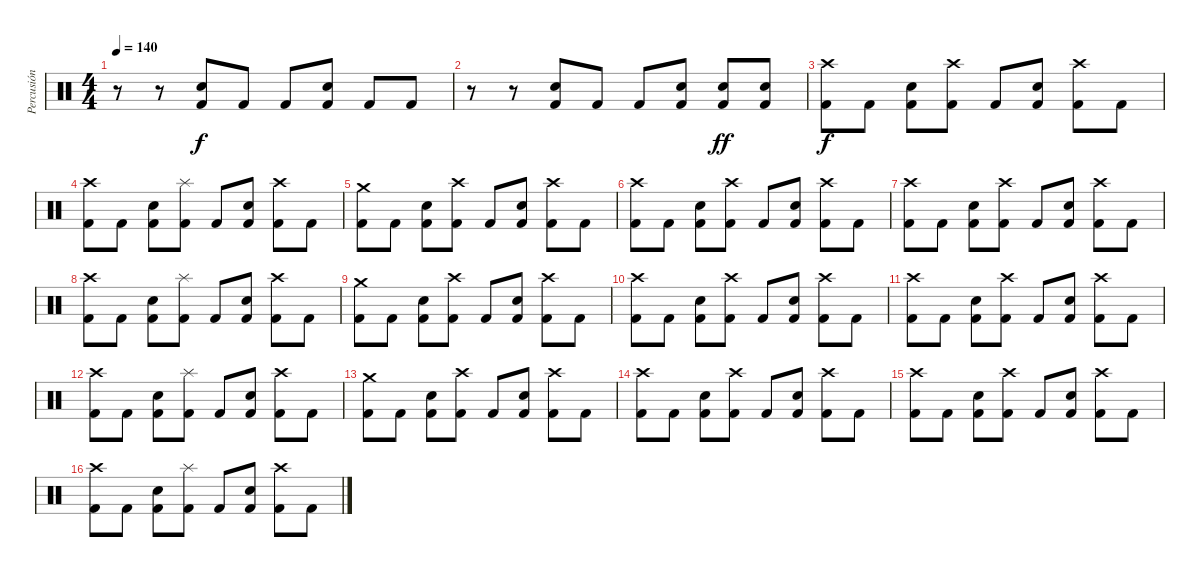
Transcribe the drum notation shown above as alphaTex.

\track ("Percusión" "Percusión") {instrument percussion}
\staff {score}
\articulation defaults
\ts (4 4)
\tempo 140
\clef neutral
\ks c
r.8{dy ff} r.8 ("Kick (hit) 2" "Snare (hit) 2").8{dy f} "Kick (hit) 2".8 "Kick (hit) 2".8 ("Kick (hit) 2" "Snare (hit) 2").8 "Kick (hit) 2".8 "Kick (hit) 2".8 |
r.8 r.8 ("Kick (hit) 2" "Snare (hit) 2").8 "Kick (hit) 2".8 "Kick (hit) 2".8 ("Kick (hit) 2" "Snare (hit) 2").8 ("Kick (hit) 2" "Snare (hit) 2").8{dy ff} ("Kick (hit) 2" "Snare (hit) 2").8 |
("Crash high (hit)" "Kick (hit) 2").8{dy f} "Kick (hit) 2".8 ("Kick (hit) 2" "Snare (hit) 2").8 ("Crash high (hit)" "Kick (hit) 2").8 "Kick (hit) 2".8 ("Kick (hit) 2" "Snare (hit) 2").8 ("Crash high (hit)" "Kick (hit) 2").8 "Kick (hit) 2".8 |
("Crash high (hit)" "Kick (hit) 2").8 "Kick (hit) 2".8 ("Kick (hit) 2" "Snare (hit) 2").8 ("Splash (hit)" "Kick (hit) 2").8 "Kick (hit) 2".8 ("Kick (hit) 2" "Snare (hit) 2").8 ("Crash high (hit)" "Kick (hit) 2").8 "Kick (hit) 2".8 |
("Crash medium (hit)" "Kick (hit) 2").8 "Kick (hit) 2".8 ("Kick (hit) 2" "Snare (hit) 2").8 ("Crash high (hit)" "Kick (hit) 2").8 "Kick (hit) 2".8 ("Kick (hit) 2" "Snare (hit) 2").8 ("Crash high (hit)" "Kick (hit) 2").8 "Kick (hit) 2".8 |
("Crash high (hit)" "Kick (hit) 2").8 "Kick (hit) 2".8 ("Kick (hit) 2" "Snare (hit) 2").8 ("Crash high (hit)" "Kick (hit) 2").8 "Kick (hit) 2".8 ("Kick (hit) 2" "Snare (hit) 2").8 ("Crash high (hit)" "Kick (hit) 2").8 "Kick (hit) 2".8 |
("Crash high (hit)" "Kick (hit) 2").8 "Kick (hit) 2".8 ("Kick (hit) 2" "Snare (hit) 2").8 ("Crash high (hit)" "Kick (hit) 2").8 "Kick (hit) 2".8 ("Kick (hit) 2" "Snare (hit) 2").8 ("Crash high (hit)" "Kick (hit) 2").8 "Kick (hit) 2".8 |
("Crash high (hit)" "Kick (hit) 2").8 "Kick (hit) 2".8 ("Kick (hit) 2" "Snare (hit) 2").8 ("Splash (hit)" "Kick (hit) 2").8 "Kick (hit) 2".8 ("Kick (hit) 2" "Snare (hit) 2").8 ("Crash high (hit)" "Kick (hit) 2").8 "Kick (hit) 2".8 |
("Crash medium (hit)" "Kick (hit) 2").8 "Kick (hit) 2".8 ("Kick (hit) 2" "Snare (hit) 2").8 ("Crash high (hit)" "Kick (hit) 2").8 "Kick (hit) 2".8 ("Kick (hit) 2" "Snare (hit) 2").8 ("Crash high (hit)" "Kick (hit) 2").8 "Kick (hit) 2".8 |
("Crash high (hit)" "Kick (hit) 2").8 "Kick (hit) 2".8 ("Kick (hit) 2" "Snare (hit) 2").8 ("Crash high (hit)" "Kick (hit) 2").8 "Kick (hit) 2".8 ("Kick (hit) 2" "Snare (hit) 2").8 ("Crash high (hit)" "Kick (hit) 2").8 "Kick (hit) 2".8 |
("Crash high (hit)" "Kick (hit) 2").8 "Kick (hit) 2".8 ("Kick (hit) 2" "Snare (hit) 2").8 ("Crash high (hit)" "Kick (hit) 2").8 "Kick (hit) 2".8 ("Kick (hit) 2" "Snare (hit) 2").8 ("Crash high (hit)" "Kick (hit) 2").8 "Kick (hit) 2".8 |
("Crash high (hit)" "Kick (hit) 2").8 "Kick (hit) 2".8 ("Kick (hit) 2" "Snare (hit) 2").8 ("Splash (hit)" "Kick (hit) 2").8 "Kick (hit) 2".8 ("Kick (hit) 2" "Snare (hit) 2").8 ("Crash high (hit)" "Kick (hit) 2").8 "Kick (hit) 2".8 |
("Crash medium (hit)" "Kick (hit) 2").8 "Kick (hit) 2".8 ("Kick (hit) 2" "Snare (hit) 2").8 ("Crash high (hit)" "Kick (hit) 2").8 "Kick (hit) 2".8 ("Kick (hit) 2" "Snare (hit) 2").8 ("Crash high (hit)" "Kick (hit) 2").8 "Kick (hit) 2".8 |
("Crash high (hit)" "Kick (hit) 2").8 "Kick (hit) 2".8 ("Kick (hit) 2" "Snare (hit) 2").8 ("Crash high (hit)" "Kick (hit) 2").8 "Kick (hit) 2".8 ("Kick (hit) 2" "Snare (hit) 2").8 ("Crash high (hit)" "Kick (hit) 2").8 "Kick (hit) 2".8 |
("Crash high (hit)" "Kick (hit) 2").8 "Kick (hit) 2".8 ("Kick (hit) 2" "Snare (hit) 2").8 ("Crash high (hit)" "Kick (hit) 2").8 "Kick (hit) 2".8 ("Kick (hit) 2" "Snare (hit) 2").8 ("Crash high (hit)" "Kick (hit) 2").8 "Kick (hit) 2".8 |
("Crash high (hit)" "Kick (hit) 2").8 "Kick (hit) 2".8 ("Kick (hit) 2" "Snare (hit) 2").8 ("Splash (hit)" "Kick (hit) 2").8 "Kick (hit) 2".8 ("Kick (hit) 2" "Snare (hit) 2").8 ("Crash high (hit)" "Kick (hit) 2").8 "Kick (hit) 2".8
